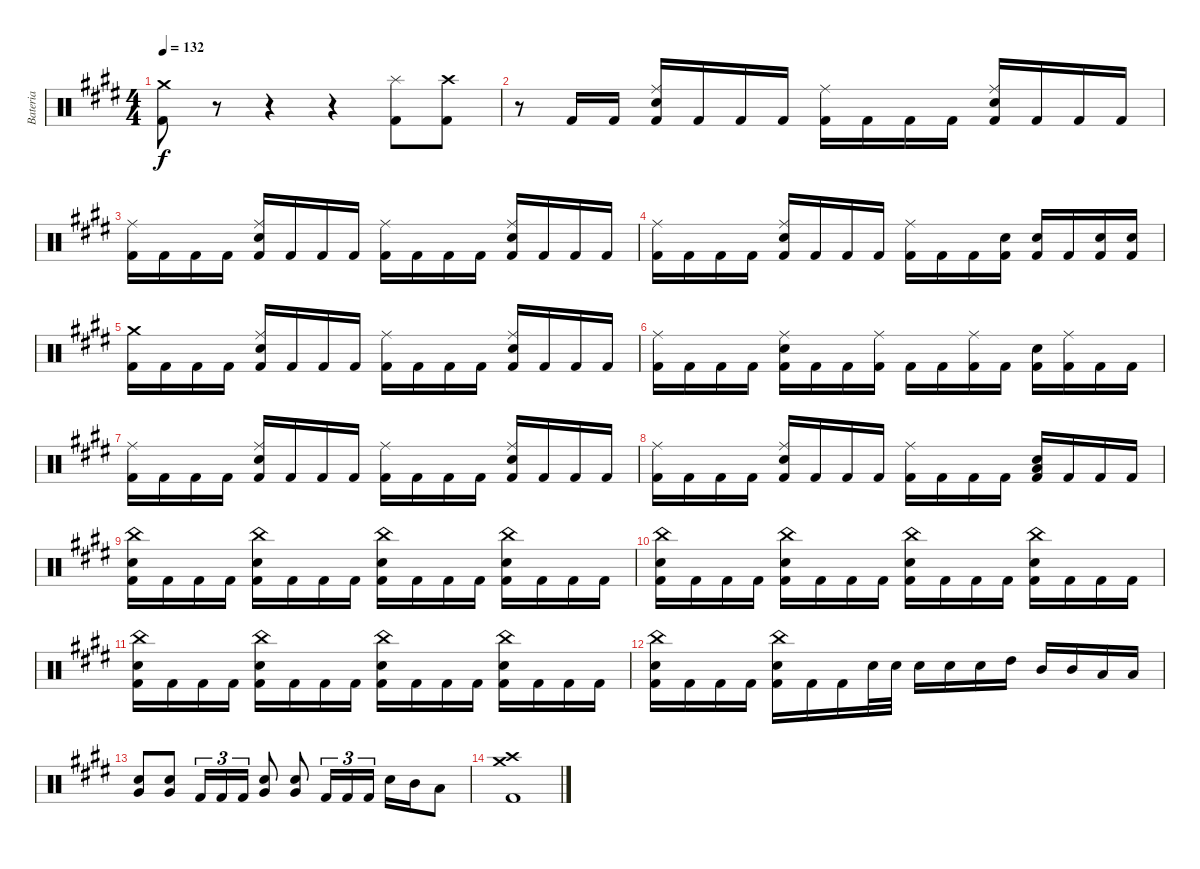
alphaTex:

\track ("Bateria" "Bateria") {instrument percussion}
\staff {score}
\articulation defaults
\ts (4 4)
\tempo 132
\clef neutral
\ks c#minor
("Crash medium (hit)" "Kick (hit) 2").8{dy f} r.8{volume 0} r.4 r.4 ("Splash (hit)" "Kick (hit) 2").8{volume 14} ("Crash high (hit)" "Kick (hit) 2").8 |
r.8 "Kick (hit) 2".16 "Kick (hit) 2".16 ("Ride (middle)" "Electric Snare (hit)" "Kick (hit) 2").16 "Kick (hit) 2".16 "Kick (hit) 2".16 "Kick (hit) 2".16 ("Ride (middle)" "Kick (hit) 2").16 "Kick (hit) 2".16 "Kick (hit) 2".16 "Kick (hit) 2".16 ("Ride (middle)" "Electric Snare (hit)" "Kick (hit) 2").16 "Kick (hit) 2".16 "Kick (hit) 2".16 "Kick (hit) 2".16 |
("Ride (middle)" "Kick (hit) 2").16 "Kick (hit) 2".16 "Kick (hit) 2".16 "Kick (hit) 2".16 ("Ride (middle)" "Electric Snare (hit)" "Kick (hit) 2").16 "Kick (hit) 2".16 "Kick (hit) 2".16 "Kick (hit) 2".16 ("Ride (middle)" "Kick (hit) 2").16 "Kick (hit) 2".16 "Kick (hit) 2".16 "Kick (hit) 2".16 ("Ride (middle)" "Electric Snare (hit)" "Kick (hit) 2").16 "Kick (hit) 2".16 "Kick (hit) 2".16 "Kick (hit) 2".16 |
("Ride (middle)" "Kick (hit) 2").16 "Kick (hit) 2".16 "Kick (hit) 2".16 "Kick (hit) 2".16 ("Ride (middle)" "Electric Snare (hit)" "Kick (hit) 2").16 "Kick (hit) 2".16 "Kick (hit) 2".16 "Kick (hit) 2".16 ("Ride (middle)" "Kick (hit) 2").16 "Kick (hit) 2".16 "Kick (hit) 2".16 ("Electric Snare (hit)" "Kick (hit) 2").16 ("Electric Snare (hit)" "Kick (hit) 2").16 "Kick (hit) 2".16 ("Electric Snare (hit)" "Kick (hit) 2").16 ("Electric Snare (hit)" "Kick (hit) 2").16 |
("Crash medium (hit)" "Kick (hit) 2").16 "Kick (hit) 2".16 "Kick (hit) 2".16 "Kick (hit) 2".16 ("Ride (middle)" "Electric Snare (hit)" "Kick (hit) 2").16 "Kick (hit) 2".16 "Kick (hit) 2".16 "Kick (hit) 2".16 ("Ride (middle)" "Kick (hit) 2").16 "Kick (hit) 2".16 "Kick (hit) 2".16 "Kick (hit) 2".16 ("Ride (middle)" "Electric Snare (hit)" "Kick (hit) 2").16 "Kick (hit) 2".16 "Kick (hit) 2".16 "Kick (hit) 2".16 |
("Ride (middle)" "Kick (hit) 2").16 "Kick (hit) 2".16 "Kick (hit) 2".16 "Kick (hit) 2".16 ("Ride (middle)" "Electric Snare (hit)" "Kick (hit) 2").16 "Kick (hit) 2".16 "Kick (hit) 2".16 ("Ride (middle)" "Kick (hit) 2").16 "Kick (hit) 2".16 "Kick (hit) 2".16 ("Ride (middle)" "Kick (hit) 2").16 "Kick (hit) 2".16 ("Electric Snare (hit)" "Kick (hit) 2").16 ("Ride (middle)" "Kick (hit) 2").16 "Kick (hit) 2".16 "Kick (hit) 2".16 |
("Ride (middle)" "Kick (hit) 2").16 "Kick (hit) 2".16 "Kick (hit) 2".16 "Kick (hit) 2".16 ("Ride (middle)" "Electric Snare (hit)" "Kick (hit) 2").16 "Kick (hit) 2".16 "Kick (hit) 2".16 "Kick (hit) 2".16 ("Ride (middle)" "Kick (hit) 2").16 "Kick (hit) 2".16 "Kick (hit) 2".16 "Kick (hit) 2".16 ("Ride (middle)" "Electric Snare (hit)" "Kick (hit) 2").16 "Kick (hit) 2".16 "Kick (hit) 2".16 "Kick (hit) 2".16 |
("Ride (middle)" "Kick (hit) 2").16 "Kick (hit) 2".16 "Kick (hit) 2".16 "Kick (hit) 2".16 ("Ride (middle)" "Electric Snare (hit)" "Kick (hit) 2").16 "Kick (hit) 2".16 "Kick (hit) 2".16 "Kick (hit) 2".16 ("Ride (middle)" "Kick (hit) 2").16 "Kick (hit) 2".16 "Kick (hit) 2".16 "Kick (hit) 2".16 ("Low Tom (hit)" "Electric Snare (hit)" "Kick (hit) 2").16 "Kick (hit) 2".16 "Kick (hit) 2".16 "Kick (hit) 2".16 |
("China (hit)" "Electric Snare (hit)" "Kick (hit) 2").16 "Kick (hit) 2".16 "Kick (hit) 2".16 "Kick (hit) 2".16 ("China (hit)" "Electric Snare (hit)" "Kick (hit) 2").16 "Kick (hit) 2".16 "Kick (hit) 2".16 "Kick (hit) 2".16 ("China (hit)" "Electric Snare (hit)" "Kick (hit) 2").16 "Kick (hit) 2".16 "Kick (hit) 2".16 "Kick (hit) 2".16 ("China (hit)" "Electric Snare (hit)" "Kick (hit) 2").16 "Kick (hit) 2".16 "Kick (hit) 2".16 "Kick (hit) 2".16 |
("China (hit)" "Electric Snare (hit)" "Kick (hit) 2").16 "Kick (hit) 2".16 "Kick (hit) 2".16 "Kick (hit) 2".16 ("China (hit)" "Electric Snare (hit)" "Kick (hit) 2").16 "Kick (hit) 2".16 "Kick (hit) 2".16 "Kick (hit) 2".16 ("China (hit)" "Electric Snare (hit)" "Kick (hit) 2").16 "Kick (hit) 2".16 "Kick (hit) 2".16 "Kick (hit) 2".16 ("China (hit)" "Electric Snare (hit)" "Kick (hit) 2").16 "Kick (hit) 2".16 "Kick (hit) 2".16 "Kick (hit) 2".16 |
("China (hit)" "Electric Snare (hit)" "Kick (hit) 2").16 "Kick (hit) 2".16 "Kick (hit) 2".16 "Kick (hit) 2".16 ("China (hit)" "Electric Snare (hit)" "Kick (hit) 2").16 "Kick (hit) 2".16 "Kick (hit) 2".16 "Kick (hit) 2".16 ("China (hit)" "Electric Snare (hit)" "Kick (hit) 2").16 "Kick (hit) 2".16 "Kick (hit) 2".16 "Kick (hit) 2".16 ("China (hit)" "Electric Snare (hit)" "Kick (hit) 2").16 "Kick (hit) 2".16 "Kick (hit) 2".16 "Kick (hit) 2".16 |
("China (hit)" "Electric Snare (hit)" "Kick (hit) 2").16 "Kick (hit) 2".16 "Kick (hit) 2".16 "Kick (hit) 2".16 ("China (hit)" "Electric Snare (hit)" "Kick (hit) 2").16 "Kick (hit) 2".16 "Kick (hit) 2".16 "Electric Snare (hit)".32 "Electric Snare (hit)".32 "Electric Snare (hit)".16 "Electric Snare (hit)".16 "Electric Snare (hit)".16 "High Tom (hit)".16 "Mid Tom (hit)".16 "Mid Tom (hit)".16 "Low Tom (hit)".16 "Low Tom (hit)".16 |
("Very Low Tom (hit)" "Electric Snare (hit)").8 ("Very Low Tom (hit)" "Electric Snare (hit)").8 "Kick (hit) 2".16{tu (3 2)} "Kick (hit) 2".16{tu (3 2)} "Kick (hit) 2".16{tu (3 2)} ("Very Low Tom (hit)" "Electric Snare (hit)").8 ("Very Low Tom (hit)" "Electric Snare (hit)").8 "Kick (hit) 2".16{tu (3 2)} "Kick (hit) 2".16{tu (3 2)} "Kick (hit) 2".16{tu (3 2)} "Electric Snare (hit)".16 "Mid Tom (hit)".16 "Low Tom (hit)".8 |
("Crash medium (hit)" "Crash high (hit)" "Kick (hit) 2").1
